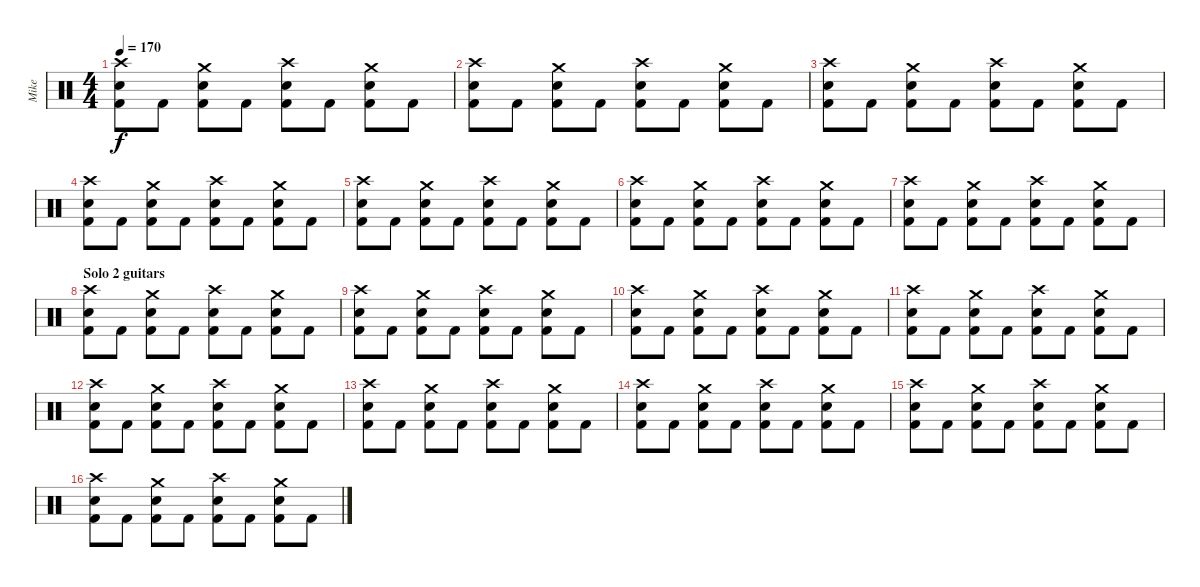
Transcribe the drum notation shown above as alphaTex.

\track ("Mike" "Mike") {instrument percussion}
\staff {score}
\articulation defaults
\ts (4 4)
\tempo 170
\clef neutral
\ks c
("Crash high (hit)" "Snare (hit) 2" "Kick (hit) 2").8{dy f} "Kick (hit) 2".8 ("Crash medium (hit)" "Snare (hit) 2" "Kick (hit) 2").8 "Kick (hit) 2".8 ("Crash high (hit)" "Snare (hit) 2" "Kick (hit) 2").8 "Kick (hit) 2".8 ("Crash medium (hit)" "Snare (hit) 2" "Kick (hit) 2").8 "Kick (hit) 2".8 |
("Crash high (hit)" "Snare (hit) 2" "Kick (hit) 2").8 "Kick (hit) 2".8 ("Crash medium (hit)" "Snare (hit) 2" "Kick (hit) 2").8 "Kick (hit) 2".8 ("Crash high (hit)" "Snare (hit) 2" "Kick (hit) 2").8 "Kick (hit) 2".8 ("Crash medium (hit)" "Snare (hit) 2" "Kick (hit) 2").8 "Kick (hit) 2".8 |
("Crash high (hit)" "Snare (hit) 2" "Kick (hit) 2").8 "Kick (hit) 2".8 ("Crash medium (hit)" "Snare (hit) 2" "Kick (hit) 2").8 "Kick (hit) 2".8 ("Crash high (hit)" "Snare (hit) 2" "Kick (hit) 2").8 "Kick (hit) 2".8 ("Crash medium (hit)" "Snare (hit) 2" "Kick (hit) 2").8 "Kick (hit) 2".8 |
("Crash high (hit)" "Snare (hit) 2" "Kick (hit) 2").8 "Kick (hit) 2".8 ("Crash medium (hit)" "Snare (hit) 2" "Kick (hit) 2").8 "Kick (hit) 2".8 ("Crash high (hit)" "Snare (hit) 2" "Kick (hit) 2").8 "Kick (hit) 2".8 ("Crash medium (hit)" "Snare (hit) 2" "Kick (hit) 2").8 "Kick (hit) 2".8 |
("Crash high (hit)" "Snare (hit) 2" "Kick (hit) 2").8 "Kick (hit) 2".8 ("Crash medium (hit)" "Snare (hit) 2" "Kick (hit) 2").8 "Kick (hit) 2".8 ("Crash high (hit)" "Snare (hit) 2" "Kick (hit) 2").8 "Kick (hit) 2".8 ("Crash medium (hit)" "Snare (hit) 2" "Kick (hit) 2").8 "Kick (hit) 2".8 |
("Crash high (hit)" "Snare (hit) 2" "Kick (hit) 2").8 "Kick (hit) 2".8 ("Crash medium (hit)" "Snare (hit) 2" "Kick (hit) 2").8 "Kick (hit) 2".8 ("Crash high (hit)" "Snare (hit) 2" "Kick (hit) 2").8 "Kick (hit) 2".8 ("Crash medium (hit)" "Snare (hit) 2" "Kick (hit) 2").8 "Kick (hit) 2".8 |
("Crash high (hit)" "Snare (hit) 2" "Kick (hit) 2").8 "Kick (hit) 2".8 ("Crash medium (hit)" "Snare (hit) 2" "Kick (hit) 2").8 "Kick (hit) 2".8 ("Crash high (hit)" "Snare (hit) 2" "Kick (hit) 2").8 "Kick (hit) 2".8 ("Crash medium (hit)" "Snare (hit) 2" "Kick (hit) 2").8 "Kick (hit) 2".8 |
\section ("" "Solo 2 guitars")
("Crash high (hit)" "Snare (hit) 2" "Kick (hit) 2").8 "Kick (hit) 2".8 ("Crash medium (hit)" "Snare (hit) 2" "Kick (hit) 2").8 "Kick (hit) 2".8 ("Crash high (hit)" "Snare (hit) 2" "Kick (hit) 2").8 "Kick (hit) 2".8 ("Crash medium (hit)" "Snare (hit) 2" "Kick (hit) 2").8 "Kick (hit) 2".8 |
("Crash high (hit)" "Snare (hit) 2" "Kick (hit) 2").8 "Kick (hit) 2".8 ("Crash medium (hit)" "Snare (hit) 2" "Kick (hit) 2").8 "Kick (hit) 2".8 ("Crash high (hit)" "Snare (hit) 2" "Kick (hit) 2").8 "Kick (hit) 2".8 ("Crash medium (hit)" "Snare (hit) 2" "Kick (hit) 2").8 "Kick (hit) 2".8 |
("Crash high (hit)" "Snare (hit) 2" "Kick (hit) 2").8 "Kick (hit) 2".8 ("Crash medium (hit)" "Snare (hit) 2" "Kick (hit) 2").8 "Kick (hit) 2".8 ("Crash high (hit)" "Snare (hit) 2" "Kick (hit) 2").8 "Kick (hit) 2".8 ("Crash medium (hit)" "Snare (hit) 2" "Kick (hit) 2").8 "Kick (hit) 2".8 |
("Crash high (hit)" "Snare (hit) 2" "Kick (hit) 2").8 "Kick (hit) 2".8 ("Crash medium (hit)" "Snare (hit) 2" "Kick (hit) 2").8 "Kick (hit) 2".8 ("Crash high (hit)" "Snare (hit) 2" "Kick (hit) 2").8 "Kick (hit) 2".8 ("Crash medium (hit)" "Snare (hit) 2" "Kick (hit) 2").8 "Kick (hit) 2".8 |
("Crash high (hit)" "Snare (hit) 2" "Kick (hit) 2").8 "Kick (hit) 2".8 ("Crash medium (hit)" "Snare (hit) 2" "Kick (hit) 2").8 "Kick (hit) 2".8 ("Crash high (hit)" "Snare (hit) 2" "Kick (hit) 2").8 "Kick (hit) 2".8 ("Crash medium (hit)" "Snare (hit) 2" "Kick (hit) 2").8 "Kick (hit) 2".8 |
("Crash high (hit)" "Snare (hit) 2" "Kick (hit) 2").8 "Kick (hit) 2".8 ("Crash medium (hit)" "Snare (hit) 2" "Kick (hit) 2").8 "Kick (hit) 2".8 ("Crash high (hit)" "Snare (hit) 2" "Kick (hit) 2").8 "Kick (hit) 2".8 ("Crash medium (hit)" "Snare (hit) 2" "Kick (hit) 2").8 "Kick (hit) 2".8 |
("Crash high (hit)" "Snare (hit) 2" "Kick (hit) 2").8 "Kick (hit) 2".8 ("Crash medium (hit)" "Snare (hit) 2" "Kick (hit) 2").8 "Kick (hit) 2".8 ("Crash high (hit)" "Snare (hit) 2" "Kick (hit) 2").8 "Kick (hit) 2".8 ("Crash medium (hit)" "Snare (hit) 2" "Kick (hit) 2").8 "Kick (hit) 2".8 |
("Crash high (hit)" "Snare (hit) 2" "Kick (hit) 2").8 "Kick (hit) 2".8 ("Crash medium (hit)" "Snare (hit) 2" "Kick (hit) 2").8 "Kick (hit) 2".8 ("Crash high (hit)" "Snare (hit) 2" "Kick (hit) 2").8 "Kick (hit) 2".8 ("Crash medium (hit)" "Snare (hit) 2" "Kick (hit) 2").8 "Kick (hit) 2".8 |
("Crash high (hit)" "Snare (hit) 2" "Kick (hit) 2").8 "Kick (hit) 2".8 ("Crash medium (hit)" "Snare (hit) 2" "Kick (hit) 2").8 "Kick (hit) 2".8 ("Crash high (hit)" "Snare (hit) 2" "Kick (hit) 2").8 "Kick (hit) 2".8 ("Crash medium (hit)" "Snare (hit) 2" "Kick (hit) 2").8 "Kick (hit) 2".8
